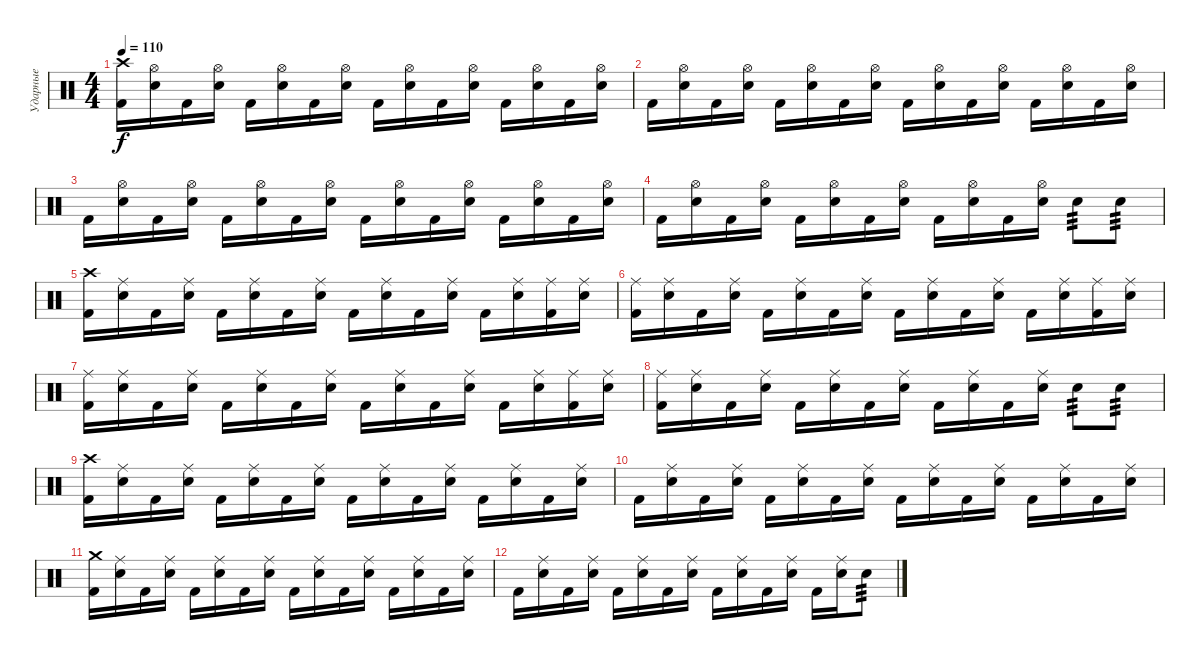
\track ("Ударные" "Ударные") {instrument percussion}
\staff {score}
\articulation defaults
\ts (4 4)
\tempo 110
\clef neutral
\ks c
("Crash high (hit)" "Kick (hit) 2").16{dy f} ("Hi-Hat (open)" "Electric Snare (hit)").16 "Kick (hit) 2".16 ("Hi-Hat (open)" "Electric Snare (hit)").16 "Kick (hit) 2".16 ("Hi-Hat (open)" "Electric Snare (hit)").16 "Kick (hit) 2".16 ("Hi-Hat (open)" "Electric Snare (hit)").16 "Kick (hit) 2".16 ("Hi-Hat (open)" "Electric Snare (hit)").16 "Kick (hit) 2".16 ("Hi-Hat (open)" "Electric Snare (hit)").16 "Kick (hit) 2".16 ("Hi-Hat (open)" "Electric Snare (hit)").16 "Kick (hit) 2".16 ("Hi-Hat (open)" "Electric Snare (hit)").16 |
"Kick (hit) 2".16 ("Hi-Hat (open)" "Electric Snare (hit)").16 "Kick (hit) 2".16 ("Hi-Hat (open)" "Electric Snare (hit)").16 "Kick (hit) 2".16 ("Hi-Hat (open)" "Electric Snare (hit)").16 "Kick (hit) 2".16 ("Hi-Hat (open)" "Electric Snare (hit)").16 "Kick (hit) 2".16 ("Hi-Hat (open)" "Electric Snare (hit)").16 "Kick (hit) 2".16 ("Hi-Hat (open)" "Electric Snare (hit)").16 "Kick (hit) 2".16 ("Hi-Hat (open)" "Electric Snare (hit)").16 "Kick (hit) 2".16 ("Hi-Hat (open)" "Electric Snare (hit)").16 |
"Kick (hit) 2".16 ("Hi-Hat (open)" "Electric Snare (hit)").16 "Kick (hit) 2".16 ("Hi-Hat (open)" "Electric Snare (hit)").16 "Kick (hit) 2".16 ("Hi-Hat (open)" "Electric Snare (hit)").16 "Kick (hit) 2".16 ("Hi-Hat (open)" "Electric Snare (hit)").16 "Kick (hit) 2".16 ("Hi-Hat (open)" "Electric Snare (hit)").16 "Kick (hit) 2".16 ("Hi-Hat (open)" "Electric Snare (hit)").16 "Kick (hit) 2".16 ("Hi-Hat (open)" "Electric Snare (hit)").16 "Kick (hit) 2".16 ("Hi-Hat (open)" "Electric Snare (hit)").16 |
"Kick (hit) 2".16 ("Hi-Hat (open)" "Electric Snare (hit)").16 "Kick (hit) 2".16 ("Hi-Hat (open)" "Electric Snare (hit)").16 "Kick (hit) 2".16 ("Hi-Hat (open)" "Electric Snare (hit)").16 "Kick (hit) 2".16 ("Hi-Hat (open)" "Electric Snare (hit)").16 "Kick (hit) 2".16 ("Hi-Hat (open)" "Electric Snare (hit)").16 "Kick (hit) 2".16 ("Hi-Hat (open)" "Electric Snare (hit)").16 "Electric Snare (hit)".8{tp 3} "Electric Snare (hit)".8{tp 3} |
("Crash high (hit)" "Kick (hit) 2").16 ("Ride (middle)" "Electric Snare (hit)").16 "Kick (hit) 2".16 ("Ride (middle)" "Electric Snare (hit)").16 "Kick (hit) 2".16 ("Ride (middle)" "Electric Snare (hit)").16 "Kick (hit) 2".16 ("Ride (middle)" "Electric Snare (hit)").16 "Kick (hit) 2".16 ("Ride (middle)" "Electric Snare (hit)").16 "Kick (hit) 2".16 ("Ride (middle)" "Electric Snare (hit)").16 "Kick (hit) 2".16 ("Ride (middle)" "Electric Snare (hit)").16 ("Ride (middle)" "Kick (hit) 2").16 ("Ride (middle)" "Electric Snare (hit)").16 |
("Ride (middle)" "Kick (hit) 2").16 ("Ride (middle)" "Electric Snare (hit)").16 "Kick (hit) 2".16 ("Ride (middle)" "Electric Snare (hit)").16 "Kick (hit) 2".16 ("Ride (middle)" "Electric Snare (hit)").16 "Kick (hit) 2".16 ("Ride (middle)" "Electric Snare (hit)").16 "Kick (hit) 2".16 ("Ride (middle)" "Electric Snare (hit)").16 "Kick (hit) 2".16 ("Ride (middle)" "Electric Snare (hit)").16 "Kick (hit) 2".16 ("Ride (middle)" "Electric Snare (hit)").16 ("Ride (middle)" "Kick (hit) 2").16 ("Ride (middle)" "Electric Snare (hit)").16 |
("Ride (middle)" "Kick (hit) 2").16 ("Ride (middle)" "Electric Snare (hit)").16 "Kick (hit) 2".16 ("Ride (middle)" "Electric Snare (hit)").16 "Kick (hit) 2".16 ("Ride (middle)" "Electric Snare (hit)").16 "Kick (hit) 2".16 ("Ride (middle)" "Electric Snare (hit)").16 "Kick (hit) 2".16 ("Ride (middle)" "Electric Snare (hit)").16 "Kick (hit) 2".16 ("Ride (middle)" "Electric Snare (hit)").16 "Kick (hit) 2".16 ("Ride (middle)" "Electric Snare (hit)").16 ("Ride (middle)" "Kick (hit) 2").16 ("Ride (middle)" "Electric Snare (hit)").16 |
("Ride (middle)" "Kick (hit) 2").16 ("Ride (middle)" "Electric Snare (hit)").16 "Kick (hit) 2".16 ("Ride (middle)" "Electric Snare (hit)").16 "Kick (hit) 2".16 ("Ride (middle)" "Electric Snare (hit)").16 "Kick (hit) 2".16 ("Ride (middle)" "Electric Snare (hit)").16 "Kick (hit) 2".16 ("Ride (middle)" "Electric Snare (hit)").16 "Kick (hit) 2".16 ("Ride (middle)" "Electric Snare (hit)").16 "Electric Snare (hit)".8{tp 3} "Electric Snare (hit)".8{tp 3} |
("Crash high (hit)" "Kick (hit) 2").16 ("Ride (middle)" "Electric Snare (hit)").16 "Kick (hit) 2".16 ("Ride (middle)" "Electric Snare (hit)").16 "Kick (hit) 2".16 ("Ride (middle)" "Electric Snare (hit)").16 "Kick (hit) 2".16 ("Ride (middle)" "Electric Snare (hit)").16 "Kick (hit) 2".16 ("Ride (middle)" "Electric Snare (hit)").16 "Kick (hit) 2".16 ("Ride (middle)" "Electric Snare (hit)").16 "Kick (hit) 2".16 ("Ride (middle)" "Electric Snare (hit)").16 "Kick (hit) 2".16 ("Ride (middle)" "Electric Snare (hit)").16 |
"Kick (hit) 2".16 ("Ride (middle)" "Electric Snare (hit)").16 "Kick (hit) 2".16 ("Ride (middle)" "Electric Snare (hit)").16 "Kick (hit) 2".16 ("Ride (middle)" "Electric Snare (hit)").16 "Kick (hit) 2".16 ("Ride (middle)" "Electric Snare (hit)").16 "Kick (hit) 2".16 ("Ride (middle)" "Electric Snare (hit)").16 "Kick (hit) 2".16 ("Ride (middle)" "Electric Snare (hit)").16 "Kick (hit) 2".16 ("Ride (middle)" "Electric Snare (hit)").16 "Kick (hit) 2".16 ("Ride (middle)" "Electric Snare (hit)").16 |
("Crash medium (hit)" "Kick (hit) 2").16 ("Ride (middle)" "Electric Snare (hit)").16 "Kick (hit) 2".16 ("Ride (middle)" "Electric Snare (hit)").16 "Kick (hit) 2".16 ("Ride (middle)" "Electric Snare (hit)").16 "Kick (hit) 2".16 ("Ride (middle)" "Electric Snare (hit)").16 "Kick (hit) 2".16 ("Ride (middle)" "Electric Snare (hit)").16 "Kick (hit) 2".16 ("Ride (middle)" "Electric Snare (hit)").16 "Kick (hit) 2".16 ("Ride (middle)" "Electric Snare (hit)").16 "Kick (hit) 2".16 ("Ride (middle)" "Electric Snare (hit)").16 |
"Kick (hit) 2".16 ("Ride (middle)" "Electric Snare (hit)").16 "Kick (hit) 2".16 ("Ride (middle)" "Electric Snare (hit)").16 "Kick (hit) 2".16 ("Ride (middle)" "Electric Snare (hit)").16 "Kick (hit) 2".16 ("Ride (middle)" "Electric Snare (hit)").16 "Kick (hit) 2".16 ("Ride (middle)" "Electric Snare (hit)").16 "Kick (hit) 2".16 ("Ride (middle)" "Electric Snare (hit)").16 "Kick (hit) 2".16 ("Ride (middle)" "Electric Snare (hit)").16 "Electric Snare (hit)".8{tp 3}
